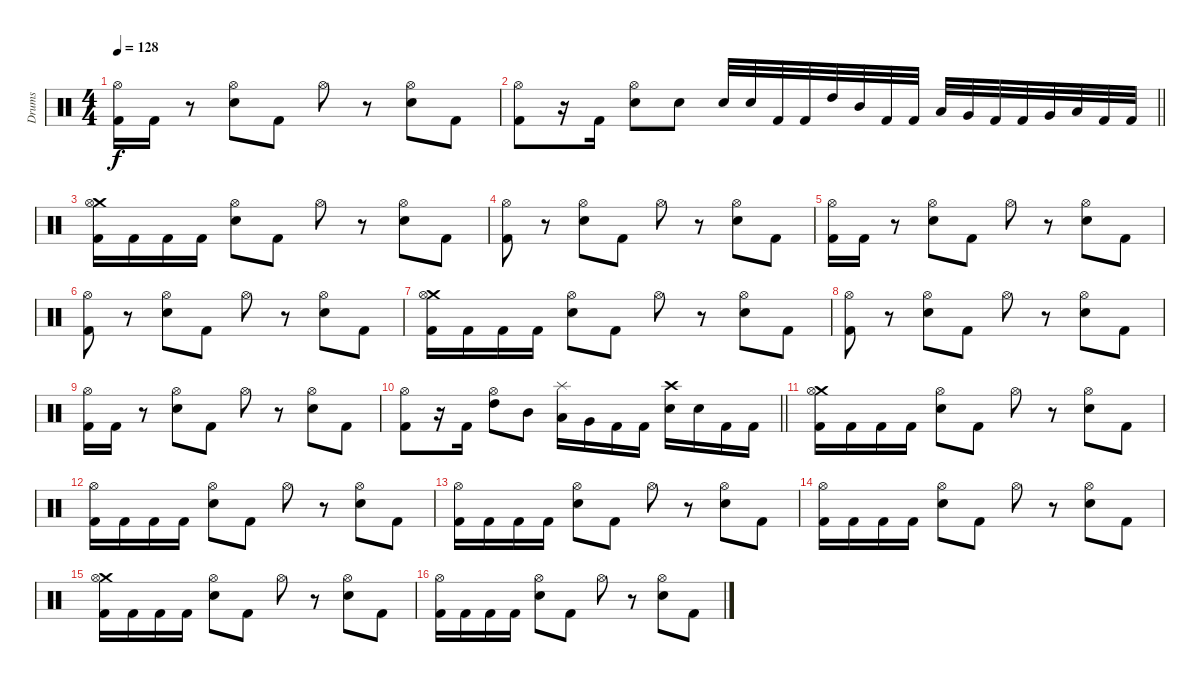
\track ("Drums" "Drums") {instrument percussion}
\staff {score}
\articulation defaults
\ts (4 4)
\tempo 128
\clef neutral
\ks c
("Hi-Hat (open)" "Kick (hit) 2").16{dy f} "Kick (hit) 2".16 r.8 ("Hi-Hat (open)" "Electric Snare (hit)").8 "Kick (hit) 2".8 "Hi-Hat (open)".8 r.8 ("Hi-Hat (open)" "Electric Snare (hit)").8 "Kick (hit) 2".8 |
\barLineRight lightlight
("Hi-Hat (open)" "Kick (hit) 2").8 r.16 "Kick (hit) 2".16 ("Hi-Hat (open)" "Electric Snare (hit)").8 "Electric Snare (hit)".8 "Electric Snare (hit)".32 "Electric Snare (hit)".32 "Kick (hit) 2".32 "Kick (hit) 2".32 "High Tom (hit)".32 "Mid Tom (hit)".32 "Kick (hit) 2".32 "Kick (hit) 2".32 "Low Tom (hit)".32 "Very Low Tom (hit)".32 "Kick (hit) 2".32 "Kick (hit) 2".32 "Very Low Tom (hit)".32 "Low Floor Tom (hit)".32 "Kick (hit) 2".32 "Kick (hit) 2".32 |
\section ("" "")
("Crash medium (hit)" "Hi-Hat (open)" "Kick (hit) 2").16 "Kick (hit) 2".16 "Kick (hit) 2".16 "Kick (hit) 2".16 ("Hi-Hat (open)" "Electric Snare (hit)").8 "Kick (hit) 2".8 "Hi-Hat (open)".8 r.8 ("Hi-Hat (open)" "Electric Snare (hit)").8 "Kick (hit) 2".8 |
("Hi-Hat (open)" "Kick (hit) 2").8 r.8 ("Hi-Hat (open)" "Electric Snare (hit)").8 "Kick (hit) 2".8 "Hi-Hat (open)".8 r.8 ("Hi-Hat (open)" "Electric Snare (hit)").8 "Kick (hit) 2".8 |
("Hi-Hat (open)" "Kick (hit) 2").16 "Kick (hit) 2".16 r.8 ("Hi-Hat (open)" "Electric Snare (hit)").8 "Kick (hit) 2".8 "Hi-Hat (open)".8 r.8 ("Hi-Hat (open)" "Electric Snare (hit)").8 "Kick (hit) 2".8 |
("Hi-Hat (open)" "Kick (hit) 2").8 r.8 ("Hi-Hat (open)" "Electric Snare (hit)").8 "Kick (hit) 2".8 "Hi-Hat (open)".8 r.8 ("Hi-Hat (open)" "Electric Snare (hit)").8 "Kick (hit) 2".8 |
("Crash medium (hit)" "Hi-Hat (open)" "Kick (hit) 2").16 "Kick (hit) 2".16 "Kick (hit) 2".16 "Kick (hit) 2".16 ("Hi-Hat (open)" "Electric Snare (hit)").8 "Kick (hit) 2".8 "Hi-Hat (open)".8 r.8 ("Hi-Hat (open)" "Electric Snare (hit)").8 "Kick (hit) 2".8 |
("Hi-Hat (open)" "Kick (hit) 2").8 r.8 ("Hi-Hat (open)" "Electric Snare (hit)").8 "Kick (hit) 2".8 "Hi-Hat (open)".8 r.8 ("Hi-Hat (open)" "Electric Snare (hit)").8 "Kick (hit) 2".8 |
("Hi-Hat (open)" "Kick (hit) 2").16 "Kick (hit) 2".16 r.8 ("Hi-Hat (open)" "Electric Snare (hit)").8 "Kick (hit) 2".8 "Hi-Hat (open)".8 r.8 ("Hi-Hat (open)" "Electric Snare (hit)").8 "Kick (hit) 2".8 |
\barLineRight lightlight
("Hi-Hat (open)" "Kick (hit) 2").8 r.16 "Kick (hit) 2".16 ("Hi-Hat (open)" "High Tom (hit)").8 "Mid Tom (hit)".8 ("Splash (hit)" "Low Tom (hit)").16 "Very Low Tom (hit)".16 "Kick (hit) 2".16 "Kick (hit) 2".16 ("Crash high (hit)" "Electric Snare (hit)").16 "Electric Snare (hit)".16 "Kick (hit) 2".16 "Kick (hit) 2".16 |
\section ("" "")
("Crash medium (hit)" "Hi-Hat (open)" "Kick (hit) 2").16 "Kick (hit) 2".16 "Kick (hit) 2".16 "Kick (hit) 2".16 ("Hi-Hat (open)" "Electric Snare (hit)").8 "Kick (hit) 2".8 "Hi-Hat (open)".8 r.8 ("Hi-Hat (open)" "Electric Snare (hit)").8 "Kick (hit) 2".8 |
("Hi-Hat (open)" "Kick (hit) 2").16 "Kick (hit) 2".16 "Kick (hit) 2".16 "Kick (hit) 2".16 ("Hi-Hat (open)" "Electric Snare (hit)").8 "Kick (hit) 2".8 "Hi-Hat (open)".8 r.8 ("Hi-Hat (open)" "Electric Snare (hit)").8 "Kick (hit) 2".8 |
("Hi-Hat (open)" "Kick (hit) 2").16 "Kick (hit) 2".16 "Kick (hit) 2".16 "Kick (hit) 2".16 ("Hi-Hat (open)" "Electric Snare (hit)").8 "Kick (hit) 2".8 "Hi-Hat (open)".8 r.8 ("Hi-Hat (open)" "Electric Snare (hit)").8 "Kick (hit) 2".8 |
("Hi-Hat (open)" "Kick (hit) 2").16 "Kick (hit) 2".16 "Kick (hit) 2".16 "Kick (hit) 2".16 ("Hi-Hat (open)" "Electric Snare (hit)").8 "Kick (hit) 2".8 "Hi-Hat (open)".8 r.8 ("Hi-Hat (open)" "Electric Snare (hit)").8 "Kick (hit) 2".8 |
("Crash medium (hit)" "Hi-Hat (open)" "Kick (hit) 2").16 "Kick (hit) 2".16 "Kick (hit) 2".16 "Kick (hit) 2".16 ("Hi-Hat (open)" "Electric Snare (hit)").8 "Kick (hit) 2".8 "Hi-Hat (open)".8 r.8 ("Hi-Hat (open)" "Electric Snare (hit)").8 "Kick (hit) 2".8 |
("Hi-Hat (open)" "Kick (hit) 2").16 "Kick (hit) 2".16 "Kick (hit) 2".16 "Kick (hit) 2".16 ("Hi-Hat (open)" "Electric Snare (hit)").8 "Kick (hit) 2".8 "Hi-Hat (open)".8 r.8 ("Hi-Hat (open)" "Electric Snare (hit)").8 "Kick (hit) 2".8
